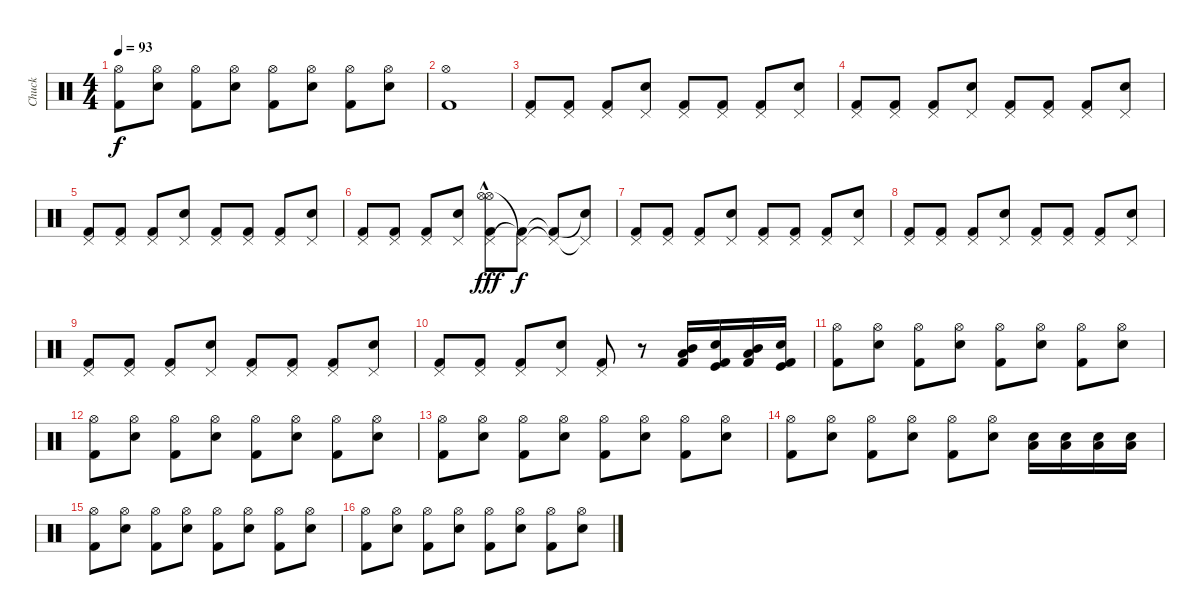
\track ("Chuck" "Chuck") {instrument percussion}
\staff {score}
\articulation defaults
\ts (4 4)
\tempo 93
\clef neutral
\ks c
("Hi-Hat (open)" "Kick (hit) 2").8{dy f} ("Hi-Hat (open)" "Snare (hit) 2").8 ("Hi-Hat (open)" "Kick (hit) 2").8 ("Hi-Hat (open)" "Snare (hit) 2").8 ("Hi-Hat (open)" "Kick (hit) 2").8 ("Hi-Hat (open)" "Snare (hit) 2").8 ("Hi-Hat (open)" "Kick (hit) 2").8 ("Hi-Hat (open)" "Snare (hit) 2").8 |
("Hi-Hat (open)" "Kick (hit) 2").1 |
("Pedal Hi-Hat (hit)" "Kick (hit) 2").8 ("Pedal Hi-Hat (hit)" "Kick (hit) 2").8 ("Pedal Hi-Hat (hit)" "Kick (hit) 2").8 ("Pedal Hi-Hat (hit)" "Snare (hit) 2").8 ("Pedal Hi-Hat (hit)" "Kick (hit) 2").8 ("Pedal Hi-Hat (hit)" "Kick (hit) 2").8 ("Pedal Hi-Hat (hit)" "Kick (hit) 2").8 ("Pedal Hi-Hat (hit)" "Snare (hit) 2").8 |
("Pedal Hi-Hat (hit)" "Kick (hit) 2").8 ("Pedal Hi-Hat (hit)" "Kick (hit) 2").8 ("Pedal Hi-Hat (hit)" "Kick (hit) 2").8 ("Pedal Hi-Hat (hit)" "Snare (hit) 2").8 ("Pedal Hi-Hat (hit)" "Kick (hit) 2").8 ("Pedal Hi-Hat (hit)" "Kick (hit) 2").8 ("Pedal Hi-Hat (hit)" "Kick (hit) 2").8 ("Pedal Hi-Hat (hit)" "Snare (hit) 2").8 |
("Pedal Hi-Hat (hit)" "Kick (hit) 2").8 ("Pedal Hi-Hat (hit)" "Kick (hit) 2").8 ("Pedal Hi-Hat (hit)" "Kick (hit) 2").8 ("Pedal Hi-Hat (hit)" "Snare (hit) 2").8 ("Pedal Hi-Hat (hit)" "Kick (hit) 2").8 ("Pedal Hi-Hat (hit)" "Kick (hit) 2").8 ("Pedal Hi-Hat (hit)" "Kick (hit) 2").8 ("Pedal Hi-Hat (hit)" "Snare (hit) 2").8 |
("Pedal Hi-Hat (hit)" "Kick (hit) 2").8 ("Pedal Hi-Hat (hit)" "Kick (hit) 2").8 ("Pedal Hi-Hat (hit)" "Kick (hit) 2").8 ("Pedal Hi-Hat (hit)" "Snare (hit) 2").8 ("Hi-Hat (open)" "Pedal Hi-Hat (hit)" "Hi-Hat (open)"{hac} "Kick (hit) 2").8{dy fff} ("Pedal Hi-Hat (hit)"{t} "Kick (hit) 2"{t}).8{dy f} ("Pedal Hi-Hat (hit)"{t} "Kick (hit) 2"{t}).8 ("Pedal Hi-Hat (hit)"{t} "Snare (hit) 2"{t}).8 |
("Pedal Hi-Hat (hit)" "Kick (hit) 2").8 ("Pedal Hi-Hat (hit)" "Kick (hit) 2").8 ("Pedal Hi-Hat (hit)" "Kick (hit) 2").8 ("Pedal Hi-Hat (hit)" "Snare (hit) 2").8 ("Pedal Hi-Hat (hit)" "Kick (hit) 2").8 ("Pedal Hi-Hat (hit)" "Kick (hit) 2").8 ("Pedal Hi-Hat (hit)" "Kick (hit) 2").8 ("Pedal Hi-Hat (hit)" "Snare (hit) 2").8 |
("Pedal Hi-Hat (hit)" "Kick (hit) 2").8 ("Pedal Hi-Hat (hit)" "Kick (hit) 2").8 ("Pedal Hi-Hat (hit)" "Kick (hit) 2").8 ("Pedal Hi-Hat (hit)" "Snare (hit) 2").8 ("Pedal Hi-Hat (hit)" "Kick (hit) 2").8 ("Pedal Hi-Hat (hit)" "Kick (hit) 2").8 ("Pedal Hi-Hat (hit)" "Kick (hit) 2").8 ("Pedal Hi-Hat (hit)" "Snare (hit) 2").8 |
("Pedal Hi-Hat (hit)" "Kick (hit) 2").8 ("Pedal Hi-Hat (hit)" "Kick (hit) 2").8 ("Pedal Hi-Hat (hit)" "Kick (hit) 2").8 ("Pedal Hi-Hat (hit)" "Snare (hit) 2").8 ("Pedal Hi-Hat (hit)" "Kick (hit) 2").8 ("Pedal Hi-Hat (hit)" "Kick (hit) 2").8 ("Pedal Hi-Hat (hit)" "Kick (hit) 2").8 ("Pedal Hi-Hat (hit)" "Snare (hit) 2").8 |
("Pedal Hi-Hat (hit)" "Kick (hit) 2").8 ("Pedal Hi-Hat (hit)" "Kick (hit) 2").8 ("Pedal Hi-Hat (hit)" "Kick (hit) 2").8 ("Pedal Hi-Hat (hit)" "Snare (hit) 2").8 ("Pedal Hi-Hat (hit)" "Kick (hit) 2").8 r.8 ("Kick (hit) 2" "Low Tom (hit)" "Mid Tom (hit)").16 ("Kick (hit) 2" "Kick (hit)" "Snare (hit) 2").16 ("Kick (hit) 2" "Low Tom (hit)" "Mid Tom (hit)").16 ("Kick (hit) 2" "Kick (hit)" "Snare (hit) 2").16 |
("Hi-Hat (open)" "Kick (hit) 2").8 ("Hi-Hat (open)" "Snare (hit) 2").8 ("Hi-Hat (open)" "Kick (hit) 2").8 ("Hi-Hat (open)" "Snare (hit) 2").8 ("Hi-Hat (open)" "Kick (hit) 2").8 ("Hi-Hat (open)" "Snare (hit) 2").8 ("Hi-Hat (open)" "Kick (hit) 2").8 ("Hi-Hat (open)" "Snare (hit) 2").8 |
("Hi-Hat (open)" "Kick (hit) 2").8 ("Hi-Hat (open)" "Snare (hit) 2").8 ("Hi-Hat (open)" "Kick (hit) 2").8 ("Hi-Hat (open)" "Snare (hit) 2").8 ("Hi-Hat (open)" "Kick (hit) 2").8 ("Hi-Hat (open)" "Snare (hit) 2").8 ("Hi-Hat (open)" "Kick (hit) 2").8 ("Hi-Hat (open)" "Snare (hit) 2").8 |
("Hi-Hat (open)" "Kick (hit) 2").8 ("Hi-Hat (open)" "Snare (hit) 2").8 ("Hi-Hat (open)" "Kick (hit) 2").8 ("Hi-Hat (open)" "Snare (hit) 2").8 ("Hi-Hat (open)" "Kick (hit) 2").8 ("Hi-Hat (open)" "Snare (hit) 2").8 ("Hi-Hat (open)" "Kick (hit) 2").8 ("Hi-Hat (open)" "Snare (hit) 2").8 |
("Hi-Hat (open)" "Kick (hit) 2").8 ("Hi-Hat (open)" "Snare (hit) 2").8 ("Hi-Hat (open)" "Kick (hit) 2").8 ("Hi-Hat (open)" "Snare (hit) 2").8 ("Hi-Hat (open)" "Kick (hit) 2").8 ("Hi-Hat (open)" "Snare (hit) 2").8 ("Low Tom (hit)" "Snare (hit) 2").16 ("Low Tom (hit)" "Snare (hit) 2").16 ("Low Tom (hit)" "Snare (hit) 2").16 ("Low Tom (hit)" "Snare (hit) 2").16 |
("Hi-Hat (open)" "Kick (hit) 2").8 ("Hi-Hat (open)" "Snare (hit) 2").8 ("Hi-Hat (open)" "Kick (hit) 2").8 ("Hi-Hat (open)" "Snare (hit) 2").8 ("Hi-Hat (open)" "Kick (hit) 2").8 ("Hi-Hat (open)" "Snare (hit) 2").8 ("Hi-Hat (open)" "Kick (hit) 2").8 ("Hi-Hat (open)" "Snare (hit) 2").8 |
("Hi-Hat (open)" "Kick (hit) 2").8 ("Hi-Hat (open)" "Snare (hit) 2").8 ("Hi-Hat (open)" "Kick (hit) 2").8 ("Hi-Hat (open)" "Snare (hit) 2").8 ("Hi-Hat (open)" "Kick (hit) 2").8 ("Hi-Hat (open)" "Snare (hit) 2").8 ("Hi-Hat (open)" "Kick (hit) 2").8 ("Hi-Hat (open)" "Snare (hit) 2").8
